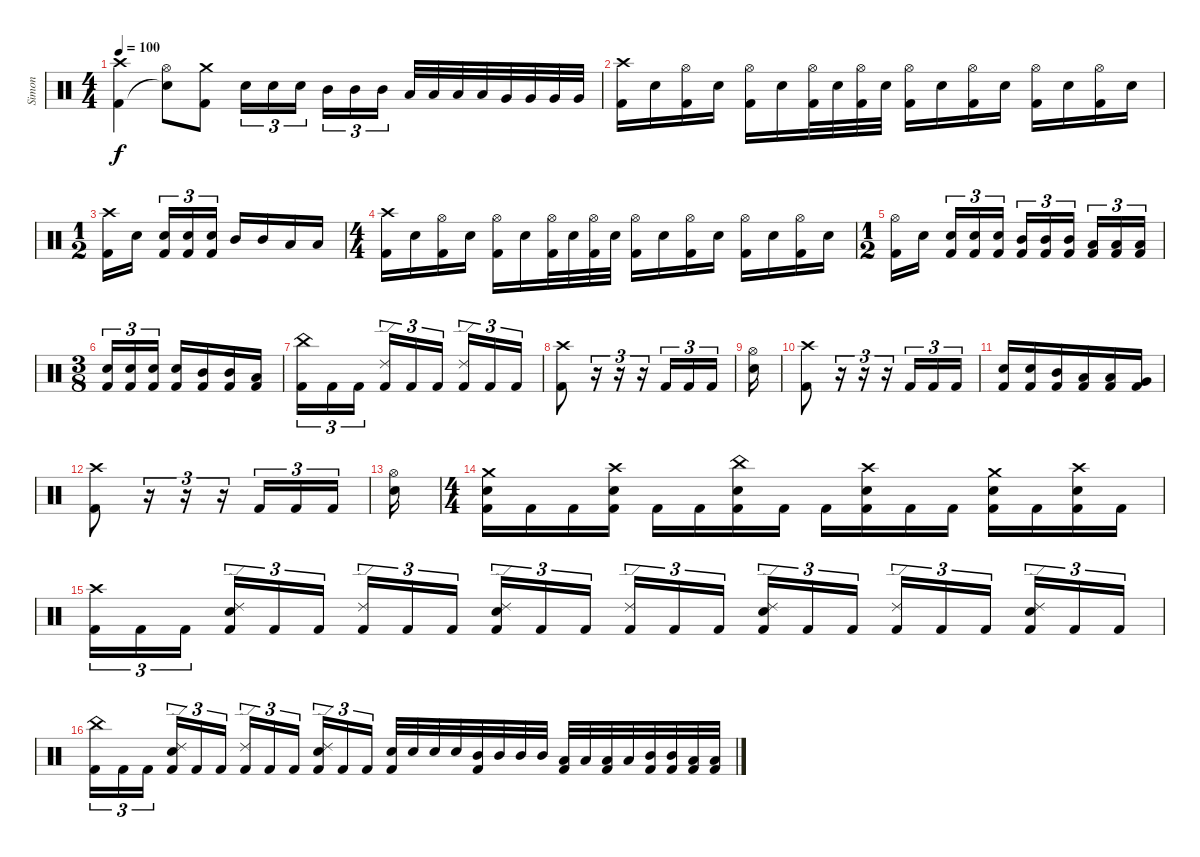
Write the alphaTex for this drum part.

\track ("Simon" "Simon") {instrument percussion}
\staff {score}
\articulation defaults
\ts (4 4)
\tempo 100
\clef neutral
\ks c
("Crash high (hit)" "Kick (hit) 2").4{dy f} ("Hi-Hat (open)" "Snare (hit)"{t}).8 ("Crash medium (hit)" "Kick (hit) 2").8 "Electric Snare (hit)".16{tu (3 2)} "Electric Snare (hit)".16{tu (3 2)} "Electric Snare (hit)".16{tu (3 2) beam splitsecondary} "Mid Tom (hit)".16{tu (3 2)} "Mid Tom (hit)".16{tu (3 2)} "Mid Tom (hit)".16{tu (3 2)} "Low Tom (hit)".32 "Low Tom (hit)".32 "Low Tom (hit)".32 "Low Tom (hit)".32 "Very Low Tom (hit)".32 "Very Low Tom (hit)".32 "Very Low Tom (hit)".32 "Very Low Tom (hit)".32 |
("Crash high (hit)" "Kick (hit) 2").16 "Electric Snare (hit)".16 ("Hi-Hat (open)" "Kick (hit) 2").16 "Electric Snare (hit)".16 ("Hi-Hat (open)" "Kick (hit) 2").16 "Electric Snare (hit)".16 ("Hi-Hat (open)" "Kick (hit) 2").32 "Electric Snare (hit)".32 ("Hi-Hat (open)" "Kick (hit) 2").32 "Electric Snare (hit)".32 ("Hi-Hat (open)" "Kick (hit) 2").16 "Electric Snare (hit)".16 ("Hi-Hat (open)" "Kick (hit) 2").16 "Electric Snare (hit)".16 ("Hi-Hat (open)" "Kick (hit) 2").16 "Electric Snare (hit)".16 ("Hi-Hat (open)" "Kick (hit) 2").16 "Electric Snare (hit)".16 |
\ts (1 2)
("Crash high (hit)" "Kick (hit) 2").16 "Electric Snare (hit)".16{beam splitsecondary} ("Electric Snare (hit)" "Kick (hit) 2").16{tu (3 2)} ("Electric Snare (hit)" "Kick (hit) 2").16{tu (3 2)} ("Electric Snare (hit)" "Kick (hit) 2").16{tu (3 2) beam splitsecondary} "Mid Tom (hit)".16 "Mid Tom (hit)".16 "Low Tom (hit)".16 "Low Tom (hit)".16 |
\ts (4 4)
("Crash high (hit)" "Kick (hit) 2").16 "Electric Snare (hit)".16 ("Hi-Hat (open)" "Kick (hit) 2").16 "Electric Snare (hit)".16 ("Hi-Hat (open)" "Kick (hit) 2").16 "Electric Snare (hit)".16 ("Hi-Hat (open)" "Kick (hit) 2").32 "Electric Snare (hit)".32 ("Hi-Hat (open)" "Kick (hit) 2").32 "Electric Snare (hit)".32 ("Hi-Hat (open)" "Kick (hit) 2").16 "Electric Snare (hit)".16 ("Hi-Hat (open)" "Kick (hit) 2").16 "Electric Snare (hit)".16 ("Hi-Hat (open)" "Kick (hit) 2").16 "Electric Snare (hit)".16 ("Hi-Hat (open)" "Kick (hit) 2").16 "Electric Snare (hit)".16 |
\ts (1 2)
("Hi-Hat (open)" "Kick (hit) 2").16 "Electric Snare (hit)".16{beam splitsecondary} ("Electric Snare (hit)" "Kick (hit) 2").16{tu (3 2)} ("Electric Snare (hit)" "Kick (hit) 2").16{tu (3 2)} ("Electric Snare (hit)" "Kick (hit) 2").16{tu (3 2) beam splitsecondary} ("Mid Tom (hit)" "Kick (hit) 2").16{tu (3 2)} ("Mid Tom (hit)" "Kick (hit) 2").16{tu (3 2)} ("Mid Tom (hit)" "Kick (hit) 2").16{tu (3 2) beam splitsecondary} ("Low Tom (hit)" "Kick (hit) 2").16{tu (3 2)} ("Low Tom (hit)" "Kick (hit) 2").16{tu (3 2)} ("Low Tom (hit)" "Kick (hit) 2").16{tu (3 2)} |
\ts (3 8)
("Electric Snare (hit)" "Kick (hit) 2").16{tu (3 2)} ("Electric Snare (hit)" "Kick (hit) 2").16{tu (3 2)} ("Electric Snare (hit)" "Kick (hit) 2").16{tu (3 2)} ("Electric Snare (hit)" "Kick (hit) 2").16 ("Mid Tom (hit)" "Kick (hit) 2").16 ("Mid Tom (hit)" "Kick (hit) 2").16 ("Low Tom (hit)" "Kick (hit) 2").16 |
("China (hit)" "Kick (hit) 2").16{tu (3 2)} "Kick (hit) 2".16{tu (3 2)} "Kick (hit) 2".16{tu (3 2)} ("Ride (edge) 2" "Kick (hit) 2").16{tu (3 2)} "Kick (hit) 2".16{tu (3 2)} "Kick (hit) 2".16{tu (3 2)} ("Ride (edge) 2" "Kick (hit) 2").16{tu (3 2)} "Kick (hit) 2".16{tu (3 2)} "Kick (hit) 2".16{tu (3 2)} |
("Crash high (hit)" "Kick (hit) 2").8 r.16{tu (3 2)} r.16{tu (3 2)} r.16{tu (3 2)} "Kick (hit) 2".16{tu (3 2)} "Kick (hit) 2".16{tu (3 2)} "Kick (hit) 2".16{tu (3 2)} |
("Hi-Hat (open)" "Electric Snare (hit)").16 |
("Crash high (hit)" "Kick (hit) 2").8 r.16{tu (3 2)} r.16{tu (3 2)} r.16{tu (3 2)} "Kick (hit) 2".16{tu (3 2)} "Kick (hit) 2".16{tu (3 2)} "Kick (hit) 2".16{tu (3 2)} |
("Electric Snare (hit)" "Kick (hit) 2").16 ("Electric Snare (hit)" "Kick (hit) 2").16 ("Mid Tom (hit)" "Kick (hit) 2").16 ("Low Tom (hit)" "Kick (hit) 2").16 ("Low Tom (hit)" "Kick (hit) 2").16 ("Very Low Tom (hit)" "Kick (hit) 2").16 |
("Crash high (hit)" "Kick (hit) 2").8 r.16{tu (3 2)} r.16{tu (3 2)} r.16{tu (3 2)} "Kick (hit) 2".16{tu (3 2)} "Kick (hit) 2".16{tu (3 2)} "Kick (hit) 2".16{tu (3 2)} |
("Hi-Hat (open)" "Electric Snare (hit)").16 |
\ts (4 4)
("Crash medium (hit)" "Electric Snare (hit)" "Kick (hit) 2").16 "Kick (hit) 2".16 "Kick (hit) 2".16 ("Crash high (hit)" "Electric Snare (hit)" "Kick (hit) 2").16 "Kick (hit) 2".16 "Kick (hit) 2".16 ("China (hit)" "Electric Snare (hit)" "Kick (hit) 2").16 "Kick (hit) 2".16 "Kick (hit) 2".16 ("Crash high (hit)" "Electric Snare (hit)" "Kick (hit) 2").16 "Kick (hit) 2".16 "Kick (hit) 2".16 ("Crash medium (hit)" "Electric Snare (hit)" "Kick (hit) 2").16 "Kick (hit) 2".16 ("Crash high (hit)" "Electric Snare (hit)" "Kick (hit) 2").16 "Kick (hit) 2".16 |
("Crash high (hit)" "Kick (hit) 2").16{tu (3 2)} "Kick (hit) 2".16{tu (3 2)} "Kick (hit) 2".16{tu (3 2) beam splitsecondary} ("Ride (edge) 2" "Electric Snare (hit)" "Kick (hit) 2").16{tu (3 2)} "Kick (hit) 2".16{tu (3 2)} "Kick (hit) 2".16{tu (3 2)} ("Ride (edge) 2" "Kick (hit) 2").16{tu (3 2)} "Kick (hit) 2".16{tu (3 2)} "Kick (hit) 2".16{tu (3 2) beam splitsecondary} ("Ride (edge) 2" "Electric Snare (hit)" "Kick (hit) 2").16{tu (3 2)} "Kick (hit) 2".16{tu (3 2)} "Kick (hit) 2".16{tu (3 2)} ("Ride (edge) 2" "Kick (hit) 2").16{tu (3 2)} "Kick (hit) 2".16{tu (3 2)} "Kick (hit) 2".16{tu (3 2) beam splitsecondary} ("Ride (edge) 2" "Electric Snare (hit)" "Kick (hit) 2").16{tu (3 2)} "Kick (hit) 2".16{tu (3 2)} "Kick (hit) 2".16{tu (3 2)} ("Ride (edge) 2" "Kick (hit) 2").16{tu (3 2)} "Kick (hit) 2".16{tu (3 2)} "Kick (hit) 2".16{tu (3 2) beam splitsecondary} ("Ride (edge) 2" "Electric Snare (hit)" "Kick (hit) 2").16{tu (3 2)} "Kick (hit) 2".16{tu (3 2)} "Kick (hit) 2".16{tu (3 2)} |
("China (hit)" "Kick (hit) 2").16{tu (3 2)} "Kick (hit) 2".16{tu (3 2)} "Kick (hit) 2".16{tu (3 2) beam splitsecondary} ("Ride (edge) 2" "Electric Snare (hit)" "Kick (hit) 2").16{tu (3 2)} "Kick (hit) 2".16{tu (3 2)} "Kick (hit) 2".16{tu (3 2)} ("Ride (edge) 2" "Kick (hit) 2").16{tu (3 2)} "Kick (hit) 2".16{tu (3 2)} "Kick (hit) 2".16{tu (3 2) beam splitsecondary} ("Ride (edge) 2" "Electric Snare (hit)" "Kick (hit) 2").16{tu (3 2)} "Kick (hit) 2".16{tu (3 2)} "Kick (hit) 2".16{tu (3 2)} ("Electric Snare (hit)" "Kick (hit) 2").32 "Electric Snare (hit)".32 "Electric Snare (hit)".32 "Electric Snare (hit)".32 ("Mid Tom (hit)" "Kick (hit) 2").32 "Mid Tom (hit)".32 "Mid Tom (hit)".32 "Mid Tom (hit)".32 ("Low Tom (hit)" "Kick (hit) 2").32 "Low Tom (hit)".32 ("Low Tom (hit)" "Kick (hit) 2").32 "Low Tom (hit)".32 ("Mid Tom (hit)" "Kick (hit) 2").32 ("Mid Tom (hit)" "Kick (hit) 2").32 ("Low Tom (hit)" "Kick (hit) 2").32 ("Low Tom (hit)" "Kick (hit) 2").32
